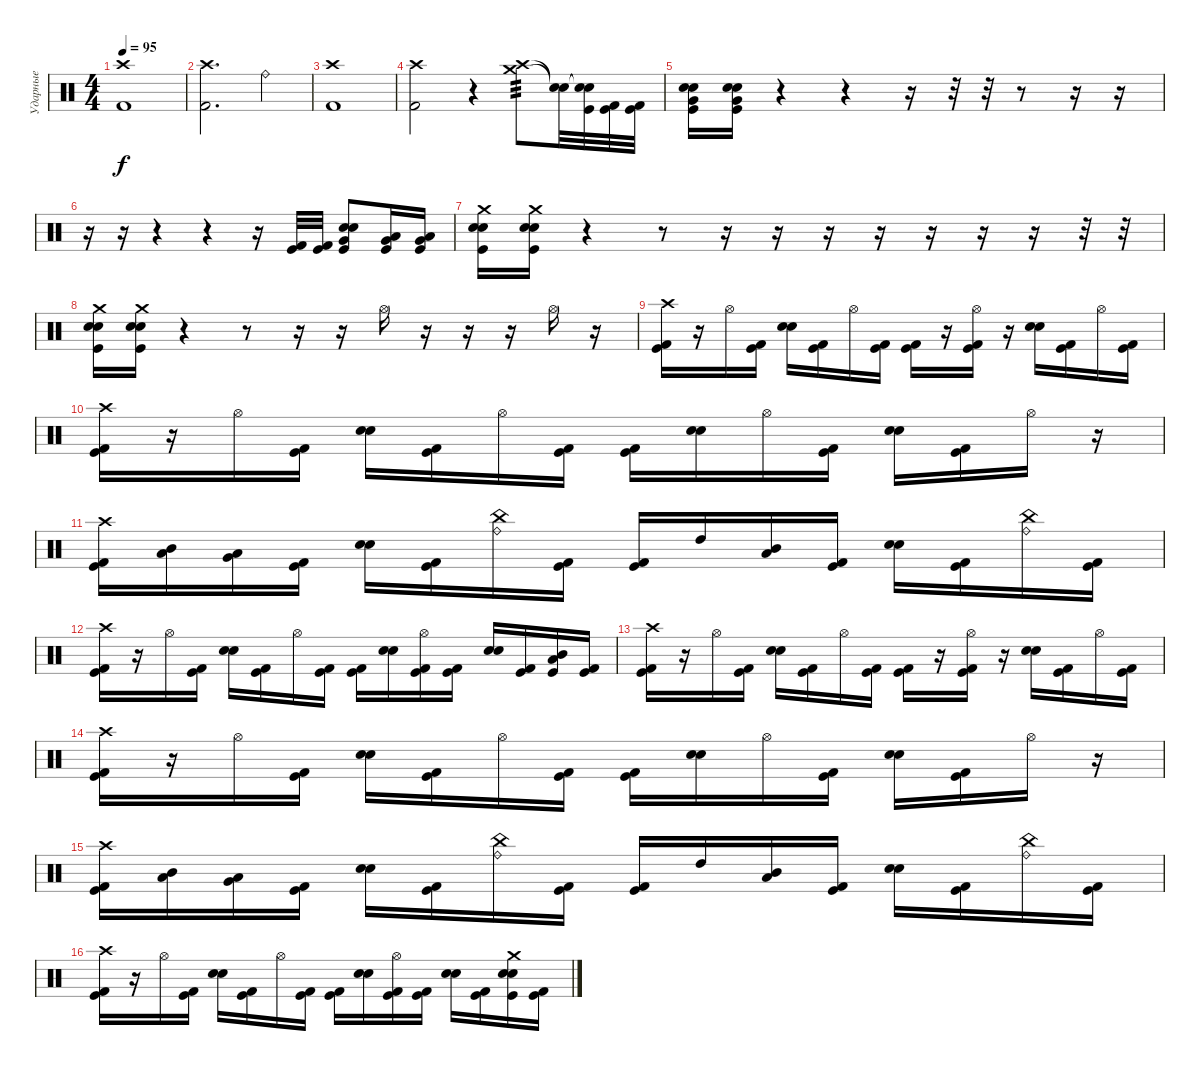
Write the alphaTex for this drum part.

\track ("Ударные" "Ударные") {instrument percussion}
\staff {score}
\articulation defaults
\ts (4 4)
\tempo 95
\clef neutral
\ks c
("Crash high (hit)" "Kick (hit) 2").1{dy f} |
("Crash high (hit)" "Kick (hit) 2").2{d} "Ride (bell)".4 |
("Crash high (hit)" "Kick (hit) 2").1 |
("Crash high (hit)" "Kick (hit) 2").2 r.4 ("Crash medium (hit)" "Crash high (hit)").8{tp 3} ("Snare (hit)"{t} "Snare (hit)"{t}).32 ("Snare (hit)"{t} "Snare (hit)"{t} "Kick (hit)").32 ("Kick (hit) 2" "Kick (hit)").32 ("Kick (hit) 2" "Kick (hit)").32 |
("Very Low Tom (hit)" "Snare (hit)" "Electric Snare (hit)" "Kick (hit)").16 ("Very Low Tom (hit)" "Snare (hit)" "Electric Snare (hit)" "Kick (hit)").16 r.4 r.4 r.16 r.32 r.32 r.8 r.16 r.16 |
r.16 r.16 r.4 r.4 r.16 ("Kick (hit) 2" "Kick (hit)").32 ("Kick (hit) 2" "Kick (hit)").32 ("Very Low Tom (hit)" "Snare (hit)" "Electric Snare (hit)" "Kick (hit)").8 ("Low Tom (hit)" "Very Low Tom (hit)" "Kick (hit)").16 ("Low Tom (hit)" "Very Low Tom (hit)" "Kick (hit)").16 |
("Crash medium (hit)" "Snare (hit)" "Electric Snare (hit)" "Kick (hit)").16 ("Crash medium (hit)" "Snare (hit)" "Electric Snare (hit)" "Kick (hit)").16 r.4 r.8 r.16 r.16 r.16 r.16 r.16 r.16 r.16 r.32 r.32 |
("Crash medium (hit)" "Snare (hit)" "Electric Snare (hit)" "Kick (hit)").16 ("Crash medium (hit)" "Snare (hit)" "Electric Snare (hit)" "Kick (hit)").16 r.4 r.8 r.16 r.16 "Hi-Hat (open)".16 r.16 r.16 r.16 "Hi-Hat (open)".16 r.16 |
("Crash high (hit)" "Kick (hit) 2" "Kick (hit)").16 r.16 "Hi-Hat (open)".16 ("Kick (hit) 2" "Kick (hit)").16 ("Snare (hit)" "Electric Snare (hit)").16 ("Kick (hit) 2" "Kick (hit)").16 "Hi-Hat (open)".16 ("Kick (hit) 2" "Kick (hit)").16 ("Kick (hit) 2" "Kick (hit)").16 r.16 ("Hi-Hat (open)" "Kick (hit) 2" "Kick (hit)").16 r.16 ("Electric Snare (hit)" "Snare (hit)").16 ("Kick (hit) 2" "Kick (hit)").16 "Hi-Hat (open)".16 ("Kick (hit) 2" "Kick (hit)").16 |
("Crash high (hit)" "Kick (hit) 2" "Kick (hit)").16 r.16 "Hi-Hat (open)".16 ("Kick (hit) 2" "Kick (hit)").16 ("Snare (hit)" "Electric Snare (hit)").16 ("Kick (hit) 2" "Kick (hit)").16 "Hi-Hat (open)".16 ("Kick (hit) 2" "Kick (hit)").16 ("Kick (hit) 2" "Kick (hit)").16 ("Snare (hit)" "Electric Snare (hit)").16 "Hi-Hat (open)".16 ("Kick (hit) 2" "Kick (hit)").16 ("Electric Snare (hit)" "Snare (hit)").16 ("Kick (hit) 2" "Kick (hit)").16 "Hi-Hat (open)".16 r.16 |
("Crash high (hit)" "Kick (hit) 2" "Kick (hit)").16 ("Mid Tom (hit)" "Low Tom (hit)").16 ("Low Tom (hit)" "Very Low Tom (hit)").16 ("Kick (hit) 2" "Kick (hit)").16 ("Snare (hit)" "Electric Snare (hit)").16 ("Kick (hit) 2" "Kick (hit)").16 ("China (hit)" "Ride (bell)").16 ("Kick (hit) 2" "Kick (hit)").16 ("Kick (hit) 2" "Kick (hit)").16 "High Tom (hit)".16 ("Mid Tom (hit)" "Low Tom (hit)").16 ("Kick (hit) 2" "Kick (hit)").16 ("Electric Snare (hit)" "Snare (hit)").16 ("Kick (hit) 2" "Kick (hit)").16 ("China (hit)" "Ride (bell)").16 ("Kick (hit) 2" "Kick (hit)").16 |
("Crash high (hit)" "Kick (hit) 2" "Kick (hit)").16 r.16 "Hi-Hat (open)".16 ("Kick (hit) 2" "Kick (hit)").16 ("Snare (hit)" "Electric Snare (hit)").16 ("Kick (hit) 2" "Kick (hit)").16 "Hi-Hat (open)".16 ("Kick (hit) 2" "Kick (hit)").16 ("Kick (hit) 2" "Kick (hit)").16 ("Snare (hit)" "Electric Snare (hit)").16 ("Hi-Hat (open)" "Kick (hit) 2" "Kick (hit)").16 ("Kick (hit) 2" "Kick (hit)").16 ("Electric Snare (hit)" "Snare (hit)").16 ("Kick (hit) 2" "Kick (hit)").16 ("Mid Tom (hit)" "Low Tom (hit)" "Kick (hit)").16 ("Kick (hit) 2" "Kick (hit)").16 |
("Crash high (hit)" "Kick (hit) 2" "Kick (hit)").16 r.16 "Hi-Hat (open)".16 ("Kick (hit) 2" "Kick (hit)").16 ("Snare (hit)" "Electric Snare (hit)").16 ("Kick (hit) 2" "Kick (hit)").16 "Hi-Hat (open)".16 ("Kick (hit) 2" "Kick (hit)").16 ("Kick (hit) 2" "Kick (hit)").16 r.16 ("Hi-Hat (open)" "Kick (hit) 2" "Kick (hit)").16 r.16 ("Electric Snare (hit)" "Snare (hit)").16 ("Kick (hit) 2" "Kick (hit)").16 "Hi-Hat (open)".16 ("Kick (hit) 2" "Kick (hit)").16 |
("Crash high (hit)" "Kick (hit) 2" "Kick (hit)").16 r.16 "Hi-Hat (open)".16 ("Kick (hit) 2" "Kick (hit)").16 ("Snare (hit)" "Electric Snare (hit)").16 ("Kick (hit) 2" "Kick (hit)").16 "Hi-Hat (open)".16 ("Kick (hit) 2" "Kick (hit)").16 ("Kick (hit) 2" "Kick (hit)").16 ("Snare (hit)" "Electric Snare (hit)").16 "Hi-Hat (open)".16 ("Kick (hit) 2" "Kick (hit)").16 ("Electric Snare (hit)" "Snare (hit)").16 ("Kick (hit) 2" "Kick (hit)").16 "Hi-Hat (open)".16 r.16 |
("Crash high (hit)" "Kick (hit) 2" "Kick (hit)").16 ("Mid Tom (hit)" "Low Tom (hit)").16 ("Low Tom (hit)" "Very Low Tom (hit)").16 ("Kick (hit) 2" "Kick (hit)").16 ("Snare (hit)" "Electric Snare (hit)").16 ("Kick (hit) 2" "Kick (hit)").16 ("China (hit)" "Ride (bell)").16 ("Kick (hit) 2" "Kick (hit)").16 ("Kick (hit) 2" "Kick (hit)").16 "High Tom (hit)".16 ("Mid Tom (hit)" "Low Tom (hit)").16 ("Kick (hit) 2" "Kick (hit)").16 ("Electric Snare (hit)" "Snare (hit)").16 ("Kick (hit) 2" "Kick (hit)").16 ("China (hit)" "Ride (bell)").16 ("Kick (hit) 2" "Kick (hit)").16 |
("Crash high (hit)" "Kick (hit) 2" "Kick (hit)").16 r.16 "Hi-Hat (open)".16 ("Kick (hit) 2" "Kick (hit)").16 ("Snare (hit)" "Electric Snare (hit)").16 ("Kick (hit) 2" "Kick (hit)").16 "Hi-Hat (open)".16 ("Kick (hit) 2" "Kick (hit)").16 ("Kick (hit) 2" "Kick (hit)").16 ("Snare (hit)" "Electric Snare (hit)").16 ("Hi-Hat (open)" "Kick (hit) 2" "Kick (hit)").16 ("Kick (hit) 2" "Kick (hit)").16 ("Electric Snare (hit)" "Snare (hit)").16 ("Kick (hit) 2" "Kick (hit)").16 ("Crash medium (hit)" "Snare (hit)" "Electric Snare (hit)" "Kick (hit)").16 ("Kick (hit) 2" "Kick (hit)").16
